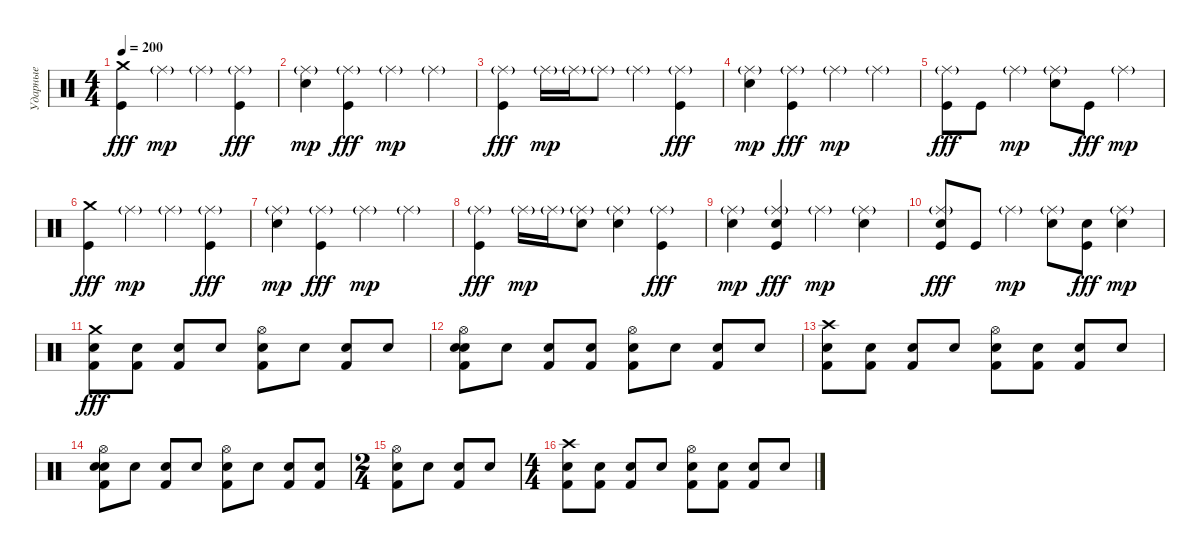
\track ("Ударные" "Ударные") {instrument percussion}
\staff {score}
\articulation defaults
\ts (4 4)
\tempo 200
\clef neutral
\ks c
("Crash medium (hit)" "Kick (hit)").4{dy fff volume 13} "Ride (middle)"{g}.4{dy mp} "Ride (middle)"{g}.4 ("Ride (middle)"{g} "Kick (hit)").4{dy fff} |
("Ride (middle)"{g} "Electric Snare (hit)").4{dy mp} ("Ride (middle)"{g} "Kick (hit)").4{dy fff} "Ride (middle)"{g}.4{dy mp} "Ride (middle)"{g}.4 |
("Ride (middle)"{g} "Kick (hit)").4{dy fff} "Ride (middle)"{g}.16{dy mp} "Ride (middle)"{g}.16 "Ride (middle)"{g}.8 "Ride (middle)"{g}.4 ("Ride (middle)"{g} "Kick (hit)").4{dy fff} |
("Ride (middle)"{g} "Electric Snare (hit)").4{dy mp} ("Ride (middle)"{g} "Kick (hit)").4{dy fff} "Ride (middle)"{g}.4{dy mp} "Ride (middle)"{g}.4 |
("Ride (middle)"{g} "Kick (hit)").8{dy fff} "Kick (hit)".8 "Ride (middle)"{g}.4{dy mp} ("Ride (middle)"{g} "Electric Snare (hit)").8 "Kick (hit)".8{dy fff} "Ride (middle)"{g}.4{dy mp} |
("Crash medium (hit)" "Kick (hit)").4{dy fff} "Ride (middle)"{g}.4{dy mp} "Ride (middle)"{g}.4 ("Ride (middle)"{g} "Kick (hit)").4{dy fff} |
("Ride (middle)"{g} "Electric Snare (hit)").4{dy mp} ("Ride (middle)"{g} "Kick (hit)").4{dy fff} "Ride (middle)"{g}.4{dy mp} "Ride (middle)"{g}.4 |
("Ride (middle)"{g} "Kick (hit)").4{dy fff} "Ride (middle)"{g}.16{dy mp} "Ride (middle)"{g}.16 ("Ride (middle)"{g} "Electric Snare (hit)").8 ("Ride (middle)"{g} "Electric Snare (hit)").4 ("Ride (middle)"{g} "Kick (hit)").4{dy fff} |
("Ride (middle)"{g} "Electric Snare (hit)").4{dy mp} ("Ride (middle)"{g} "Electric Snare (hit)" "Kick (hit)").4{dy fff} "Ride (middle)"{g}.4{dy mp} ("Ride (middle)"{g} "Electric Snare (hit)").4 |
("Ride (middle)"{g} "Electric Snare (hit)" "Kick (hit)").8{dy fff} "Kick (hit)".8 "Ride (middle)"{g}.4{dy mp} ("Ride (middle)"{g} "Electric Snare (hit)").8 ("Electric Snare (hit)" "Kick (hit)").8{dy fff} ("Ride (middle)"{g} "Electric Snare (hit)").4{dy mp} |
("Snare (hit)" "Crash medium (hit)" "Kick (hit) 2").8{dy fff} ("Snare (hit)" "Kick (hit) 2").8 ("Snare (hit)" "Kick (hit) 2").8 "Snare (hit)".8 ("Snare (hit)" "Hi-Hat (open)" "Kick (hit) 2").8 "Snare (hit)".8 ("Snare (hit)" "Kick (hit) 2").8 "Snare (hit)".8 |
("Snare (hit)" "Hi-Hat (open)" "Electric Snare (hit)" "Kick (hit) 2").8 "Snare (hit)".8 ("Snare (hit)" "Kick (hit) 2").8 ("Snare (hit)" "Kick (hit) 2").8 ("Snare (hit)" "Hi-Hat (open)" "Kick (hit) 2").8 "Snare (hit)".8 ("Snare (hit)" "Kick (hit) 2").8 "Snare (hit)".8 |
("Snare (hit)" "Crash high (hit)" "Kick (hit) 2").8 ("Snare (hit)" "Kick (hit) 2").8 ("Snare (hit)" "Kick (hit) 2").8 "Snare (hit)".8 ("Snare (hit)" "Hi-Hat (open)" "Kick (hit) 2").8 ("Snare (hit)" "Kick (hit) 2").8 ("Snare (hit)" "Kick (hit) 2").8 "Snare (hit)".8 |
("Snare (hit)" "Hi-Hat (open)" "Electric Snare (hit)" "Kick (hit) 2").8 "Snare (hit)".8 ("Snare (hit)" "Kick (hit) 2").8 "Snare (hit)".8 ("Snare (hit)" "Hi-Hat (open)" "Kick (hit) 2").8 "Snare (hit)".8 ("Snare (hit)" "Kick (hit) 2").8 ("Snare (hit)" "Kick (hit) 2").8 |
\ts (2 4)
("Snare (hit)" "Hi-Hat (open)" "Kick (hit) 2").8 "Snare (hit)".8 ("Snare (hit)" "Kick (hit) 2").8 "Snare (hit)".8 |
\ts (4 4)
("Snare (hit)" "Crash high (hit)" "Kick (hit) 2").8 ("Snare (hit)" "Kick (hit) 2").8 ("Snare (hit)" "Kick (hit) 2").8 "Snare (hit)".8 ("Snare (hit)" "Hi-Hat (open)" "Kick (hit) 2").8 ("Snare (hit)" "Kick (hit) 2").8 ("Snare (hit)" "Kick (hit) 2").8 "Snare (hit)".8
